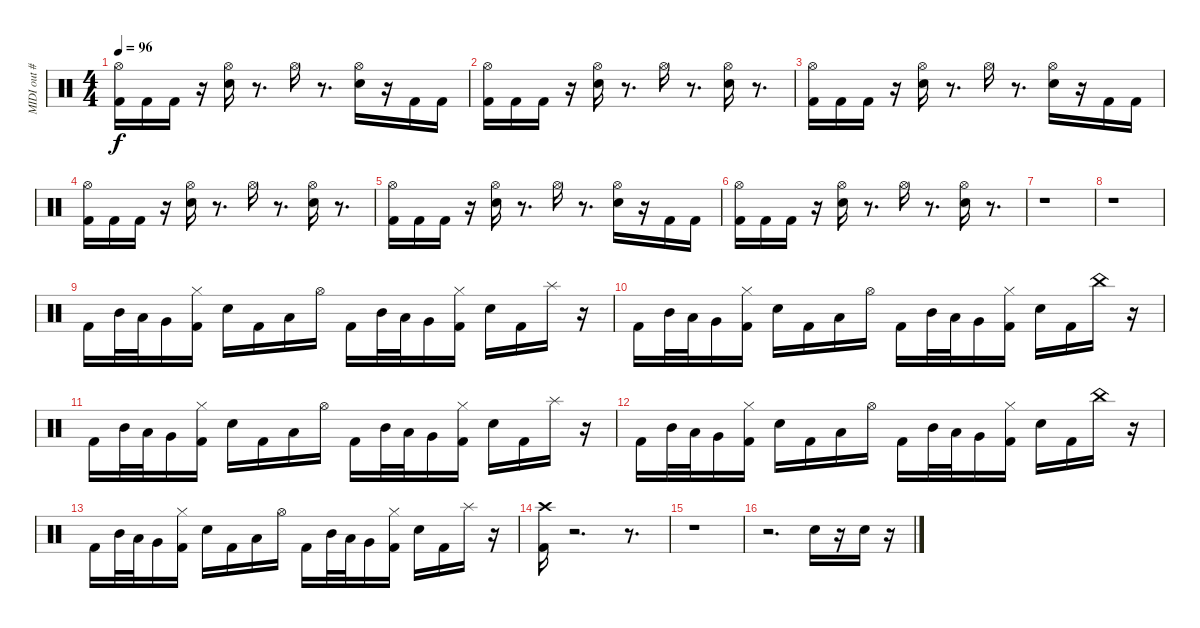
\track ("MIDI out #3" "MIDI out #") {instrument percussion}
\staff {score}
\articulation defaults
\ts (4 4)
\tempo 96
\clef neutral
\ks c
("Hi-Hat (open)" "Kick (hit) 2").16{dy f} "Kick (hit) 2".16 "Kick (hit) 2".16 r.16 ("Hi-Hat (open)" "Snare (hit) 2").16 r.8{d} "Hi-Hat (open)".16 r.8{d} ("Hi-Hat (open)" "Snare (hit) 2").16 r.16 "Kick (hit) 2".16 "Kick (hit) 2".16 |
("Kick (hit) 2" "Hi-Hat (open)").16 "Kick (hit) 2".16 "Kick (hit) 2".16 r.16 ("Hi-Hat (open)" "Snare (hit) 2").16 r.8{d} "Hi-Hat (open)".16 r.8{d} ("Hi-Hat (open)" "Snare (hit) 2").16 r.8{d} |
("Hi-Hat (open)" "Kick (hit) 2").16 "Kick (hit) 2".16 "Kick (hit) 2".16 r.16 ("Hi-Hat (open)" "Snare (hit) 2").16 r.8{d} "Hi-Hat (open)".16 r.8{d} ("Hi-Hat (open)" "Snare (hit) 2").16 r.16 "Kick (hit) 2".16 "Kick (hit) 2".16 |
("Kick (hit) 2" "Hi-Hat (open)").16 "Kick (hit) 2".16 "Kick (hit) 2".16 r.16 ("Hi-Hat (open)" "Snare (hit) 2").16 r.8{d} "Hi-Hat (open)".16 r.8{d} ("Hi-Hat (open)" "Snare (hit) 2").16 r.8{d} |
("Hi-Hat (open)" "Kick (hit) 2").16 "Kick (hit) 2".16 "Kick (hit) 2".16 r.16 ("Hi-Hat (open)" "Snare (hit) 2").16 r.8{d} "Hi-Hat (open)".16 r.8{d} ("Hi-Hat (open)" "Snare (hit) 2").16 r.16 "Kick (hit) 2".16 "Kick (hit) 2".16 |
("Kick (hit) 2" "Hi-Hat (open)").16 "Kick (hit) 2".16 "Kick (hit) 2".16 r.16 ("Hi-Hat (open)" "Snare (hit) 2").16 r.8{d} "Hi-Hat (open)".16 r.8{d} ("Hi-Hat (open)" "Snare (hit) 2").16 r.8{d} |
r.1 |
r.1 |
"Kick (hit) 2".16 "Mid Tom (hit)".32 "Low Tom (hit)".32 "Very Low Tom (hit)".16 ("Hi-Hat (closed)" "Kick (hit) 2").16 "Electric Snare (hit)".16 "Kick (hit) 2".16 "Low Floor Tom (hit)".16 "Hi-Hat (open)".16 "Kick (hit) 2".16 "Mid Tom (hit)".32 "Low Tom (hit)".32 "Very Low Tom (hit)".16 ("Hi-Hat (closed)" "Kick (hit) 2").16 "Electric Snare (hit)".16 "Kick (hit) 2".16 "Splash (hit)".16 r.16 |
"Kick (hit) 2".16 "Mid Tom (hit)".32 "Low Tom (hit)".32 "Very Low Tom (hit)".16 ("Hi-Hat (closed)" "Kick (hit) 2").16 "Electric Snare (hit)".16 "Kick (hit) 2".16 "Low Floor Tom (hit)".16 "Hi-Hat (open)".16 "Kick (hit) 2".16 "Mid Tom (hit)".32 "Low Tom (hit)".32 "Very Low Tom (hit)".16 ("Kick (hit) 2" "Hi-Hat (closed)").16 "Electric Snare (hit)".16 "Kick (hit) 2".16 "China (hit)".16 r.16 |
"Kick (hit) 2".16 "Mid Tom (hit)".32 "Low Tom (hit)".32 "Very Low Tom (hit)".16 ("Kick (hit) 2" "Hi-Hat (closed)").16 "Electric Snare (hit)".16 "Kick (hit) 2".16 "Low Floor Tom (hit)".16 "Hi-Hat (open)".16 "Kick (hit) 2".16 "Mid Tom (hit)".32 "Low Tom (hit)".32 "Very Low Tom (hit)".16 ("Kick (hit) 2" "Hi-Hat (closed)").16 "Electric Snare (hit)".16 "Kick (hit) 2".16 "Splash (hit)".16 r.16 |
"Kick (hit) 2".16 "Mid Tom (hit)".32 "Low Tom (hit)".32 "Very Low Tom (hit)".16 ("Hi-Hat (closed)" "Kick (hit) 2").16 "Electric Snare (hit)".16 "Kick (hit) 2".16 "Low Floor Tom (hit)".16 "Hi-Hat (open)".16 "Kick (hit) 2".16 "Mid Tom (hit)".32 "Low Tom (hit)".32 "Very Low Tom (hit)".16 ("Hi-Hat (closed)" "Kick (hit) 2").16 "Electric Snare (hit)".16 "Kick (hit) 2".16 "China (hit)".16 r.16 |
"Kick (hit) 2".16 "Mid Tom (hit)".32 "Low Tom (hit)".32 "Very Low Tom (hit)".16 ("Kick (hit) 2" "Hi-Hat (closed)").16 "Electric Snare (hit)".16 "Kick (hit) 2".16 "Low Floor Tom (hit)".16 "Hi-Hat (open)".16 "Kick (hit) 2".16 "Mid Tom (hit)".32 "Low Tom (hit)".32 "Very Low Tom (hit)".16 ("Kick (hit) 2" "Hi-Hat (closed)").16 "Electric Snare (hit)".16 "Kick (hit) 2".16 "Splash (hit)".16 r.16 |
("Crash high (hit)" "Kick (hit) 2").16 r.2{d} r.8{d} |
r.1 |
r.2{d} "Snare (hit) 2".16 r.16 "Snare (hit) 2".16 r.16
